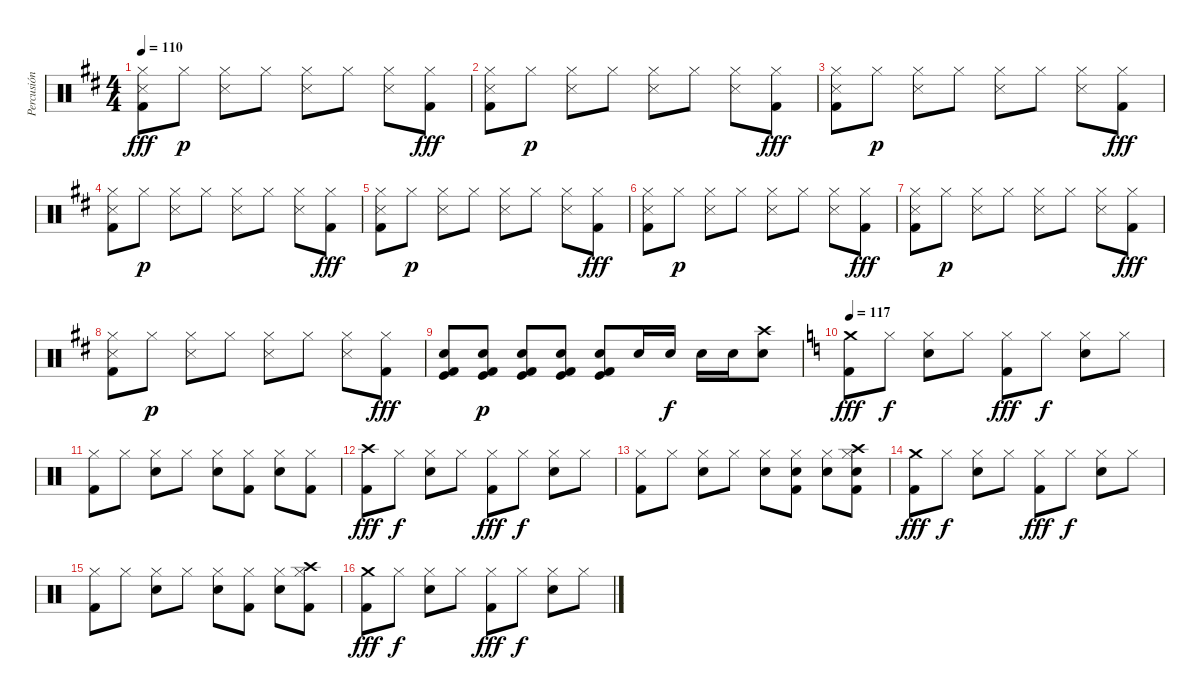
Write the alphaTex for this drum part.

\track ("Percusión" "Percusión") {instrument percussion}
\staff {score}
\articulation defaults
\ts (4 4)
\tempo 110
\clef neutral
\ks d
("Hi-Hat (closed)" "Snare (side stick) 3" "Kick (hit) 2").8{dy fff} "Hi-Hat (closed)".8{dy p} ("Hi-Hat (closed)" "Snare (side stick) 3").8 "Hi-Hat (closed)".8 ("Hi-Hat (closed)" "Snare (side stick) 3").8 "Hi-Hat (closed)".8 ("Hi-Hat (closed)" "Snare (side stick) 3").8 ("Hi-Hat (closed)" "Kick (hit) 2").8{dy fff} |
("Hi-Hat (closed)" "Snare (side stick) 3" "Kick (hit) 2").8 "Hi-Hat (closed)".8{dy p} ("Hi-Hat (closed)" "Snare (side stick) 3").8 "Hi-Hat (closed)".8 ("Hi-Hat (closed)" "Snare (side stick) 3").8 "Hi-Hat (closed)".8 ("Hi-Hat (closed)" "Snare (side stick) 3").8 ("Hi-Hat (closed)" "Kick (hit) 2").8{dy fff} |
("Hi-Hat (closed)" "Snare (side stick) 3" "Kick (hit) 2").8 "Hi-Hat (closed)".8{dy p} ("Hi-Hat (closed)" "Snare (side stick) 3").8 "Hi-Hat (closed)".8 ("Hi-Hat (closed)" "Snare (side stick) 3").8 "Hi-Hat (closed)".8 ("Hi-Hat (closed)" "Snare (side stick) 3").8 ("Hi-Hat (closed)" "Kick (hit) 2").8{dy fff} |
("Hi-Hat (closed)" "Snare (side stick) 3" "Kick (hit) 2").8 "Hi-Hat (closed)".8{dy p} ("Hi-Hat (closed)" "Snare (side stick) 3").8 "Hi-Hat (closed)".8 ("Hi-Hat (closed)" "Snare (side stick) 3").8 "Hi-Hat (closed)".8 ("Hi-Hat (closed)" "Snare (side stick) 3").8 ("Hi-Hat (closed)" "Kick (hit) 2").8{dy fff} |
("Hi-Hat (closed)" "Snare (side stick) 3" "Kick (hit) 2").8 "Hi-Hat (closed)".8{dy p} ("Hi-Hat (closed)" "Snare (side stick) 3").8 "Hi-Hat (closed)".8 ("Hi-Hat (closed)" "Snare (side stick) 3").8 "Hi-Hat (closed)".8 ("Hi-Hat (closed)" "Snare (side stick) 3").8 ("Hi-Hat (closed)" "Kick (hit) 2").8{dy fff} |
("Hi-Hat (closed)" "Snare (side stick) 3" "Kick (hit) 2").8 "Hi-Hat (closed)".8{dy p} ("Hi-Hat (closed)" "Snare (side stick) 3").8 "Hi-Hat (closed)".8 ("Hi-Hat (closed)" "Snare (side stick) 3").8 "Hi-Hat (closed)".8 ("Hi-Hat (closed)" "Snare (side stick) 3").8 ("Hi-Hat (closed)" "Kick (hit) 2").8{dy fff} |
("Hi-Hat (closed)" "Snare (side stick) 3" "Kick (hit) 2").8 "Hi-Hat (closed)".8{dy p} ("Hi-Hat (closed)" "Snare (side stick) 3").8 "Hi-Hat (closed)".8 ("Hi-Hat (closed)" "Snare (side stick) 3").8 "Hi-Hat (closed)".8 ("Hi-Hat (closed)" "Snare (side stick) 3").8 ("Hi-Hat (closed)" "Kick (hit) 2").8{dy fff} |
("Hi-Hat (closed)" "Snare (side stick) 3" "Kick (hit) 2").8 "Hi-Hat (closed)".8{dy p} ("Hi-Hat (closed)" "Snare (side stick) 3").8 "Hi-Hat (closed)".8 ("Hi-Hat (closed)" "Snare (side stick) 3").8 "Hi-Hat (closed)".8 ("Hi-Hat (closed)" "Snare (side stick) 3").8 ("Hi-Hat (closed)" "Kick (hit) 2").8{dy fff} |
("Snare (hit) 2" "Kick (hit)" "Kick (hit) 2").8{volume 12} ("Snare (hit) 2" "Kick (hit)" "Kick (hit) 2").8{dy p} ("Snare (hit) 2" "Kick (hit)" "Kick (hit) 2").8 ("Snare (hit) 2" "Kick (hit)" "Kick (hit) 2").8 ("Snare (hit) 2" "Kick (hit)" "Kick (hit) 2").8 "Snare (hit) 2".16 "Snare (hit) 2".16{dy f} "Snare (hit) 2".16 "Snare (hit) 2".16 ("Snare (hit) 2" "Crash high (hit)").8 |
\tempo 117
\ks c
("Crash medium (hit)" "Kick (hit) 2").8{dy fff} "Hi-Hat (closed)".8{dy f} ("Hi-Hat (closed)" "Snare (hit) 2").8 "Hi-Hat (closed)".8 ("Hi-Hat (closed)" "Kick (hit) 2").8{dy fff} "Hi-Hat (closed)".8{dy f} ("Hi-Hat (closed)" "Snare (hit) 2").8 "Hi-Hat (closed)".8 |
("Hi-Hat (closed)" "Kick (hit) 2").8 "Hi-Hat (closed)".8 ("Hi-Hat (closed)" "Snare (hit) 2").8 "Hi-Hat (closed)".8 ("Hi-Hat (closed)" "Snare (hit) 2").8 ("Hi-Hat (closed)" "Kick (hit) 2").8 ("Hi-Hat (closed)" "Snare (hit) 2").8 ("Hi-Hat (closed)" "Kick (hit) 2").8 |
("Crash high (hit)" "Kick (hit) 2").8{dy fff} "Hi-Hat (closed)".8{dy f} ("Hi-Hat (closed)" "Snare (hit) 2").8 "Hi-Hat (closed)".8 ("Hi-Hat (closed)" "Kick (hit) 2").8{dy fff} "Hi-Hat (closed)".8{dy f} ("Hi-Hat (closed)" "Snare (hit) 2").8 "Hi-Hat (closed)".8 |
("Hi-Hat (closed)" "Kick (hit) 2").8 "Hi-Hat (closed)".8 ("Hi-Hat (closed)" "Snare (hit) 2").8 "Hi-Hat (closed)".8 ("Hi-Hat (closed)" "Snare (hit) 2").8 ("Hi-Hat (closed)" "Kick (hit) 2" "Snare (hit) 2").8 ("Hi-Hat (closed)" "Snare (hit) 2").8 ("Hi-Hat (closed)" "Kick (hit) 2" "Crash high (hit)" "Snare (hit) 2").8 |
("Crash medium (hit)" "Kick (hit) 2").8{dy fff} "Hi-Hat (closed)".8{dy f} ("Hi-Hat (closed)" "Snare (hit) 2").8 "Hi-Hat (closed)".8 ("Hi-Hat (closed)" "Kick (hit) 2").8{dy fff} "Hi-Hat (closed)".8{dy f} ("Hi-Hat (closed)" "Snare (hit) 2").8 "Hi-Hat (closed)".8 |
("Hi-Hat (closed)" "Kick (hit) 2").8 "Hi-Hat (closed)".8 ("Hi-Hat (closed)" "Snare (hit) 2").8 "Hi-Hat (closed)".8 ("Hi-Hat (closed)" "Snare (hit) 2").8 ("Hi-Hat (closed)" "Kick (hit) 2").8 ("Hi-Hat (closed)" "Snare (hit) 2").8 ("Hi-Hat (closed)" "Kick (hit) 2" "Crash high (hit)").8 |
("Crash medium (hit)" "Kick (hit) 2").8{dy fff} "Hi-Hat (closed)".8{dy f} ("Hi-Hat (closed)" "Snare (hit) 2").8 "Hi-Hat (closed)".8 ("Hi-Hat (closed)" "Kick (hit) 2").8{dy fff} "Hi-Hat (closed)".8{dy f} ("Hi-Hat (closed)" "Snare (hit) 2").8 "Hi-Hat (closed)".8
